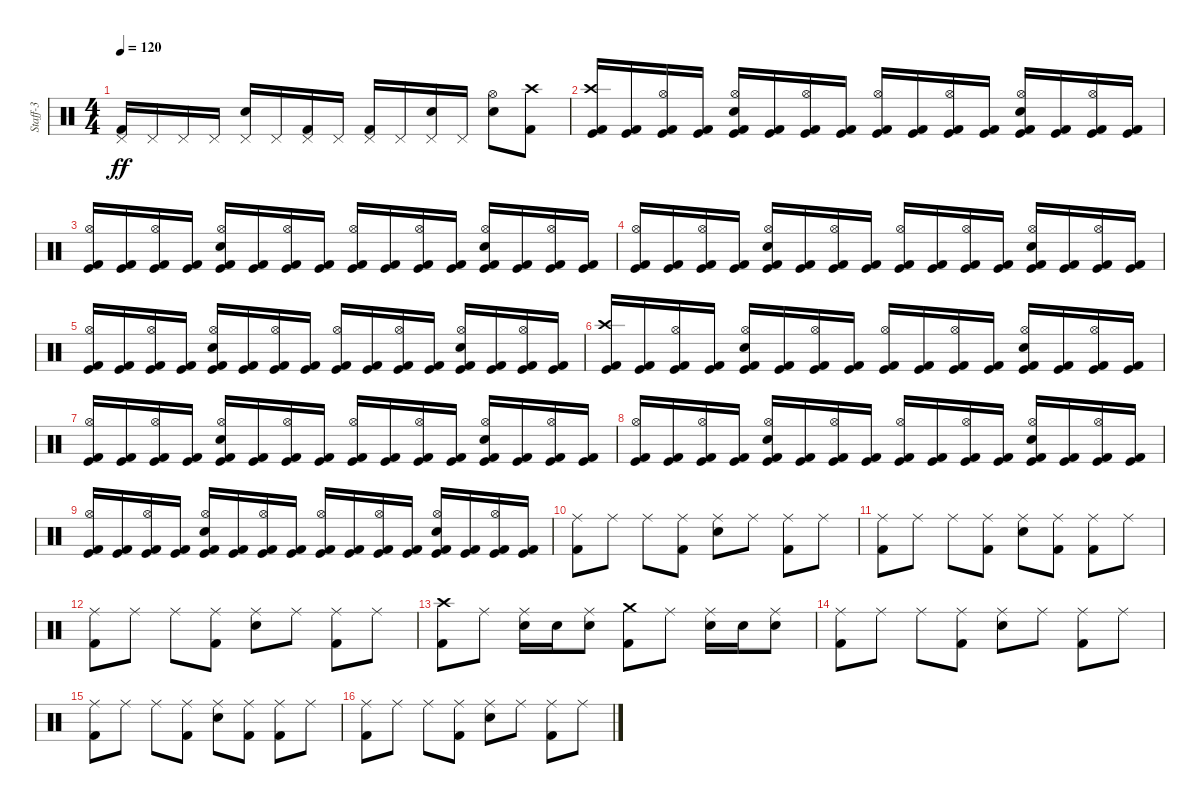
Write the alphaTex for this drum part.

\track ("Staff-3" "Staff-3") {instrument percussion}
\staff {score}
\articulation defaults
\ts (4 4)
\tempo 120
\clef neutral
\ks c
("Kick (hit) 2" "Pedal Hi-Hat (hit)").16{dy ff} "Pedal Hi-Hat (hit)".16 "Pedal Hi-Hat (hit)".16 "Pedal Hi-Hat (hit)".16 ("Snare (hit) 2" "Pedal Hi-Hat (hit)").16 "Pedal Hi-Hat (hit)".16 ("Kick (hit) 2" "Pedal Hi-Hat (hit)").16 "Pedal Hi-Hat (hit)".16 ("Kick (hit) 2" "Pedal Hi-Hat (hit)").16 "Pedal Hi-Hat (hit)".16 ("Snare (hit) 2" "Pedal Hi-Hat (hit)").16 "Pedal Hi-Hat (hit)".16 ("Snare (hit) 2" "Hi-Hat (open)").8 ("Kick (hit) 2" "Crash high (hit)").8 |
("Kick (hit)" "Kick (hit) 2" "Crash high (hit)").16 ("Kick (hit)" "Kick (hit) 2").16 ("Kick (hit)" "Kick (hit) 2" "Hi-Hat (open)").16 ("Kick (hit)" "Kick (hit) 2").16 ("Kick (hit)" "Kick (hit) 2" "Snare (hit) 2" "Hi-Hat (open)").16 ("Kick (hit)" "Kick (hit) 2").16 ("Kick (hit)" "Kick (hit) 2" "Hi-Hat (open)").16 ("Kick (hit)" "Kick (hit) 2").16 ("Kick (hit)" "Kick (hit) 2" "Hi-Hat (open)").16 ("Kick (hit)" "Kick (hit) 2").16 ("Kick (hit)" "Kick (hit) 2" "Hi-Hat (open)").16 ("Kick (hit)" "Kick (hit) 2").16 ("Kick (hit)" "Kick (hit) 2" "Snare (hit) 2" "Hi-Hat (open)").16 ("Kick (hit)" "Kick (hit) 2").16 ("Kick (hit)" "Kick (hit) 2" "Hi-Hat (open)").16 ("Kick (hit)" "Kick (hit) 2").16 |
("Kick (hit)" "Kick (hit) 2" "Hi-Hat (open)").16 ("Kick (hit)" "Kick (hit) 2").16 ("Kick (hit)" "Kick (hit) 2" "Hi-Hat (open)").16 ("Kick (hit)" "Kick (hit) 2").16 ("Kick (hit)" "Kick (hit) 2" "Snare (hit) 2" "Hi-Hat (open)").16 ("Kick (hit)" "Kick (hit) 2").16 ("Kick (hit)" "Kick (hit) 2" "Hi-Hat (open)").16 ("Kick (hit)" "Kick (hit) 2").16 ("Kick (hit)" "Kick (hit) 2" "Hi-Hat (open)").16 ("Kick (hit)" "Kick (hit) 2").16 ("Kick (hit)" "Kick (hit) 2" "Hi-Hat (open)").16 ("Kick (hit)" "Kick (hit) 2").16 ("Kick (hit)" "Kick (hit) 2" "Snare (hit) 2" "Hi-Hat (open)").16 ("Kick (hit)" "Kick (hit) 2").16 ("Kick (hit)" "Kick (hit) 2" "Hi-Hat (open)").16 ("Kick (hit)" "Kick (hit) 2").16 |
("Kick (hit)" "Kick (hit) 2" "Hi-Hat (open)").16 ("Kick (hit)" "Kick (hit) 2").16 ("Kick (hit)" "Kick (hit) 2" "Hi-Hat (open)").16 ("Kick (hit)" "Kick (hit) 2").16 ("Kick (hit)" "Kick (hit) 2" "Snare (hit) 2" "Hi-Hat (open)").16 ("Kick (hit)" "Kick (hit) 2").16 ("Kick (hit)" "Kick (hit) 2" "Hi-Hat (open)").16 ("Kick (hit)" "Kick (hit) 2").16 ("Kick (hit)" "Kick (hit) 2" "Hi-Hat (open)").16 ("Kick (hit)" "Kick (hit) 2").16 ("Kick (hit)" "Kick (hit) 2" "Hi-Hat (open)").16 ("Kick (hit)" "Kick (hit) 2").16 ("Kick (hit)" "Kick (hit) 2" "Snare (hit) 2" "Hi-Hat (open)").16 ("Kick (hit)" "Kick (hit) 2").16 ("Kick (hit)" "Kick (hit) 2" "Hi-Hat (open)").16 ("Kick (hit)" "Kick (hit) 2").16 |
("Kick (hit)" "Kick (hit) 2" "Hi-Hat (open)").16 ("Kick (hit)" "Kick (hit) 2").16 ("Kick (hit)" "Kick (hit) 2" "Hi-Hat (open)").16 ("Kick (hit)" "Kick (hit) 2").16 ("Kick (hit)" "Kick (hit) 2" "Snare (hit) 2" "Hi-Hat (open)").16 ("Kick (hit)" "Kick (hit) 2").16 ("Kick (hit)" "Kick (hit) 2" "Hi-Hat (open)").16 ("Kick (hit)" "Kick (hit) 2").16 ("Kick (hit)" "Kick (hit) 2" "Hi-Hat (open)").16 ("Kick (hit)" "Kick (hit) 2").16 ("Kick (hit)" "Kick (hit) 2" "Hi-Hat (open)").16 ("Kick (hit)" "Kick (hit) 2").16 ("Kick (hit)" "Kick (hit) 2" "Snare (hit) 2" "Hi-Hat (open)").16 ("Kick (hit)" "Kick (hit) 2").16 ("Kick (hit)" "Kick (hit) 2" "Hi-Hat (open)").16 ("Kick (hit)" "Kick (hit) 2").16 |
("Kick (hit)" "Kick (hit) 2" "Crash high (hit)").16 ("Kick (hit)" "Kick (hit) 2").16 ("Kick (hit)" "Kick (hit) 2" "Hi-Hat (open)").16 ("Kick (hit)" "Kick (hit) 2").16 ("Kick (hit)" "Kick (hit) 2" "Snare (hit) 2" "Hi-Hat (open)").16 ("Kick (hit)" "Kick (hit) 2").16 ("Kick (hit)" "Kick (hit) 2" "Hi-Hat (open)").16 ("Kick (hit)" "Kick (hit) 2").16 ("Kick (hit)" "Kick (hit) 2" "Hi-Hat (open)").16 ("Kick (hit)" "Kick (hit) 2").16 ("Kick (hit)" "Kick (hit) 2" "Hi-Hat (open)").16 ("Kick (hit)" "Kick (hit) 2").16 ("Kick (hit)" "Kick (hit) 2" "Snare (hit) 2" "Hi-Hat (open)").16 ("Kick (hit)" "Kick (hit) 2").16 ("Kick (hit)" "Kick (hit) 2" "Hi-Hat (open)").16 ("Kick (hit)" "Kick (hit) 2").16 |
("Kick (hit)" "Kick (hit) 2" "Hi-Hat (open)").16 ("Kick (hit)" "Kick (hit) 2").16 ("Kick (hit)" "Kick (hit) 2" "Hi-Hat (open)").16 ("Kick (hit)" "Kick (hit) 2").16 ("Kick (hit)" "Kick (hit) 2" "Snare (hit) 2" "Hi-Hat (open)").16 ("Kick (hit)" "Kick (hit) 2").16 ("Kick (hit)" "Kick (hit) 2" "Hi-Hat (open)").16 ("Kick (hit)" "Kick (hit) 2").16 ("Kick (hit)" "Kick (hit) 2" "Hi-Hat (open)").16 ("Kick (hit)" "Kick (hit) 2").16 ("Kick (hit)" "Kick (hit) 2" "Hi-Hat (open)").16 ("Kick (hit)" "Kick (hit) 2").16 ("Kick (hit)" "Kick (hit) 2" "Snare (hit) 2" "Hi-Hat (open)").16 ("Kick (hit)" "Kick (hit) 2").16 ("Kick (hit)" "Kick (hit) 2" "Hi-Hat (open)").16 ("Kick (hit)" "Kick (hit) 2").16 |
("Kick (hit)" "Kick (hit) 2" "Hi-Hat (open)").16 ("Kick (hit)" "Kick (hit) 2").16 ("Kick (hit)" "Kick (hit) 2" "Hi-Hat (open)").16 ("Kick (hit)" "Kick (hit) 2").16 ("Kick (hit)" "Kick (hit) 2" "Snare (hit) 2" "Hi-Hat (open)").16 ("Kick (hit)" "Kick (hit) 2").16 ("Kick (hit)" "Kick (hit) 2" "Hi-Hat (open)").16 ("Kick (hit)" "Kick (hit) 2").16 ("Kick (hit)" "Kick (hit) 2" "Hi-Hat (open)").16 ("Kick (hit)" "Kick (hit) 2").16 ("Kick (hit)" "Kick (hit) 2" "Hi-Hat (open)").16 ("Kick (hit)" "Kick (hit) 2").16 ("Kick (hit)" "Kick (hit) 2" "Snare (hit) 2" "Hi-Hat (open)").16 ("Kick (hit)" "Kick (hit) 2").16 ("Kick (hit)" "Kick (hit) 2" "Hi-Hat (open)").16 ("Kick (hit)" "Kick (hit) 2").16 |
("Kick (hit)" "Kick (hit) 2" "Hi-Hat (open)").16 ("Kick (hit)" "Kick (hit) 2").16 ("Kick (hit)" "Kick (hit) 2" "Hi-Hat (open)").16 ("Kick (hit)" "Kick (hit) 2").16 ("Kick (hit)" "Kick (hit) 2" "Snare (hit) 2" "Hi-Hat (open)").16 ("Kick (hit)" "Kick (hit) 2").16 ("Kick (hit)" "Kick (hit) 2" "Hi-Hat (open)").16 ("Kick (hit)" "Kick (hit) 2").16 ("Kick (hit)" "Kick (hit) 2" "Hi-Hat (open)").16 ("Kick (hit)" "Kick (hit) 2").16 ("Kick (hit)" "Kick (hit) 2" "Hi-Hat (open)").16 ("Kick (hit)" "Kick (hit) 2").16 ("Kick (hit)" "Kick (hit) 2" "Snare (hit) 2" "Hi-Hat (open)").16 ("Kick (hit)" "Kick (hit) 2").16 ("Kick (hit)" "Kick (hit) 2" "Hi-Hat (open)").16 ("Kick (hit)" "Kick (hit) 2").16 |
("Kick (hit) 2" "Ride (middle)").8 "Ride (middle)".8 "Ride (middle)".8 ("Kick (hit) 2" "Ride (middle)").8 ("Snare (hit) 2" "Ride (middle)").8 "Ride (middle)".8 ("Kick (hit) 2" "Ride (middle)").8 "Ride (middle)".8 |
("Kick (hit) 2" "Ride (middle)").8 "Ride (middle)".8 "Ride (middle)".8 ("Kick (hit) 2" "Ride (middle)").8 ("Snare (hit) 2" "Ride (middle)").8 ("Kick (hit) 2" "Ride (middle)").8 ("Kick (hit) 2" "Ride (middle)").8 "Ride (middle)".8 |
("Kick (hit) 2" "Ride (middle)").8 "Ride (middle)".8 "Ride (middle)".8 ("Kick (hit) 2" "Ride (middle)").8 ("Snare (hit) 2" "Ride (middle)").8 "Ride (middle)".8 ("Kick (hit) 2" "Ride (middle)").8 "Ride (middle)".8 |
("Kick (hit) 2" "Crash high (hit)").8 "Ride (middle)".8 ("Snare (hit) 2" "Ride (middle)").16 "Snare (hit) 2".16 ("Snare (hit) 2" "Ride (middle)").8 ("Kick (hit) 2" "Crash medium (hit)").8 "Ride (middle)".8 ("Snare (hit) 2" "Ride (middle)").16 "Snare (hit) 2".16 ("Snare (hit) 2" "Ride (middle)").8 |
("Kick (hit) 2" "Ride (middle)").8 "Ride (middle)".8 "Ride (middle)".8 ("Kick (hit) 2" "Ride (middle)").8 ("Snare (hit) 2" "Ride (middle)").8 "Ride (middle)".8 ("Kick (hit) 2" "Ride (middle)").8 "Ride (middle)".8 |
("Kick (hit) 2" "Ride (middle)").8 "Ride (middle)".8 "Ride (middle)".8 ("Kick (hit) 2" "Ride (middle)").8 ("Snare (hit) 2" "Ride (middle)").8 ("Kick (hit) 2" "Ride (middle)").8 ("Kick (hit) 2" "Ride (middle)").8 "Ride (middle)".8 |
("Kick (hit) 2" "Ride (middle)").8 "Ride (middle)".8 "Ride (middle)".8 ("Kick (hit) 2" "Ride (middle)").8 ("Snare (hit) 2" "Ride (middle)").8 "Ride (middle)".8 ("Kick (hit) 2" "Ride (middle)").8 "Ride (middle)".8
